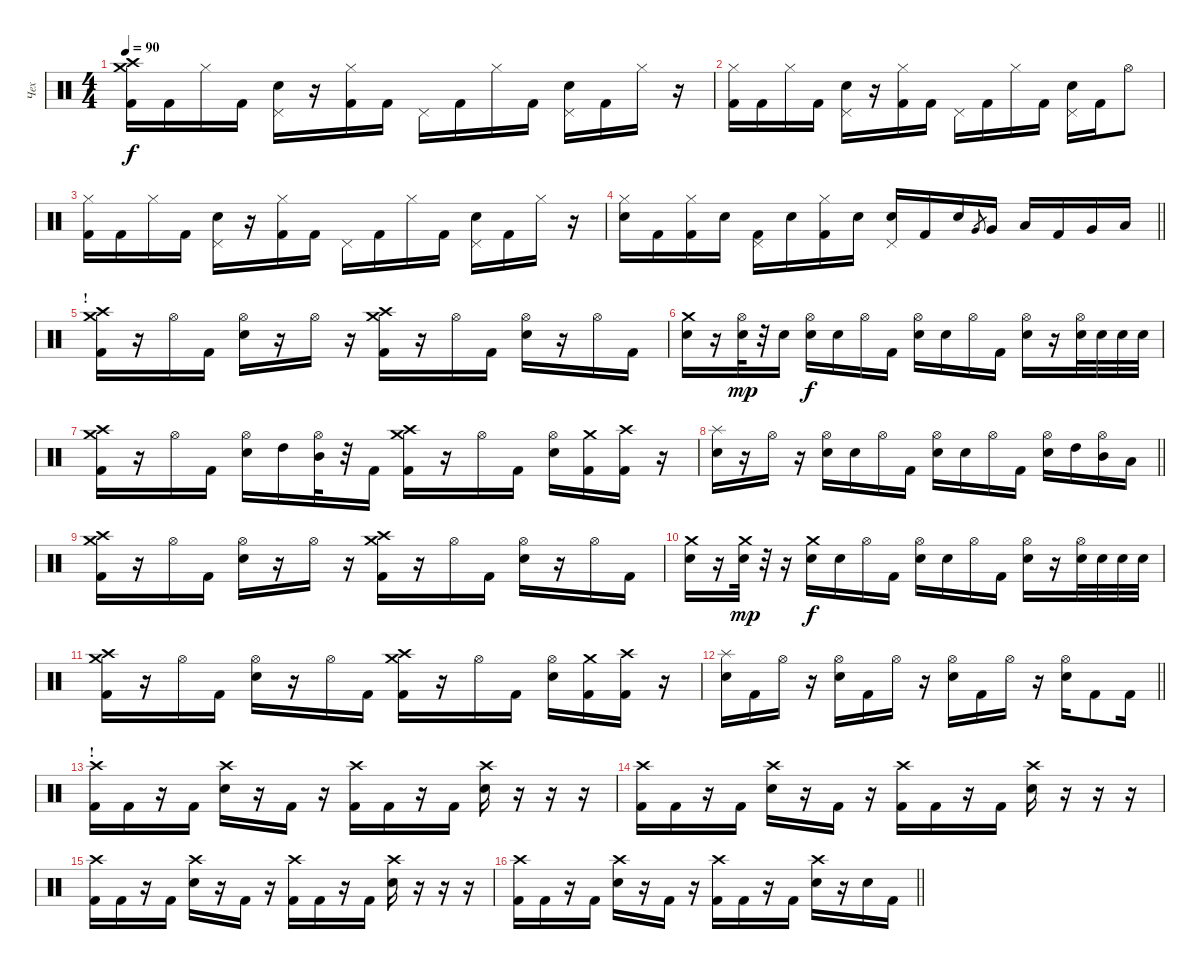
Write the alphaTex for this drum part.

\track ("Чех" "Чех") {instrument percussion}
\staff {score}
\articulation defaults
\ts (4 4)
\tempo 90
\clef neutral
\ks c
("Crash medium (hit)" "Crash high (hit)" "Kick (hit) 2").16{dy f} "Kick (hit) 2".16 "Hi-Hat (closed)".16 "Kick (hit) 2".16 ("Pedal Hi-Hat (hit)" "Snare (hit) 2").16 r.16 ("Hi-Hat (closed)" "Kick (hit) 2").16 "Kick (hit) 2".16 "Pedal Hi-Hat (hit)".16 "Kick (hit) 2".16 "Hi-Hat (closed)".16 "Kick (hit) 2".16 ("Pedal Hi-Hat (hit)" "Snare (hit) 2").16 "Kick (hit) 2".16 "Hi-Hat (closed)".16 r.16 |
("Hi-Hat (closed)" "Kick (hit) 2").16 "Kick (hit) 2".16 "Hi-Hat (closed)".16 "Kick (hit) 2".16 ("Pedal Hi-Hat (hit)" "Snare (hit) 2").16 r.16 ("Hi-Hat (closed)" "Kick (hit) 2").16 "Kick (hit) 2".16 "Pedal Hi-Hat (hit)".16 "Kick (hit) 2".16 "Hi-Hat (closed)".16 "Kick (hit) 2".16 ("Pedal Hi-Hat (hit)" "Snare (hit) 2").16 "Kick (hit) 2".16 "Hi-Hat (open)".8 |
("Hi-Hat (closed)" "Kick (hit) 2").16 "Kick (hit) 2".16 "Hi-Hat (closed)".16 "Kick (hit) 2".16 ("Pedal Hi-Hat (hit)" "Snare (hit) 2").16 r.16 ("Hi-Hat (closed)" "Kick (hit) 2").16 "Kick (hit) 2".16 "Pedal Hi-Hat (hit)".16 "Kick (hit) 2".16 "Hi-Hat (closed)".16 "Kick (hit) 2".16 ("Pedal Hi-Hat (hit)" "Snare (hit) 2").16 "Kick (hit) 2".16 "Hi-Hat (closed)".16 r.16 |
\barLineRight lightlight
("Hi-Hat (closed)" "Snare (hit) 2").16 "Kick (hit) 2".16 ("Hi-Hat (closed)" "Kick (hit) 2").16 "Snare (hit) 2".16 ("Pedal Hi-Hat (hit)" "Kick (hit) 2").16 "Snare (hit) 2".16 ("Hi-Hat (closed)" "Kick (hit) 2").16 "Snare (hit) 2".16 ("Pedal Hi-Hat (hit)" "Snare (hit) 2").16 "Kick (hit) 2".16 "Snare (hit) 2".16 "Very Low Tom (hit)".8{gr} "Very Low Tom (hit)".16 "Low Tom (hit)".16 "Kick (hit) 2".16 "Very Low Tom (hit)".16 "Low Tom (hit)".16 |
\section ("" "!")
("Crash medium (hit)" "Crash high (hit)" "Kick (hit) 2").16 r.16 "Hi-Hat (open)".16 "Kick (hit) 2".16 ("Hi-Hat (open)" "Snare (hit) 2").16 r.16 "Hi-Hat (open)".16 r.16 ("Crash medium (hit)" "Crash high (hit)" "Kick (hit) 2").16 r.16 "Hi-Hat (open)".16 "Kick (hit) 2".16 ("Hi-Hat (open)" "Snare (hit) 2").16 r.16 "Hi-Hat (open)".16 "Kick (hit) 2".16 |
("Crash medium (hit)" "Snare (hit) 2").16 r.16 ("Hi-Hat (open)" "Snare (hit) 2").32{dy mp} r.32 "Snare (hit) 2".16 ("Hi-Hat (open)" "Snare (hit) 2").16{dy f} "Snare (hit) 2".16 "Hi-Hat (open)".16 "Kick (hit) 2".16 ("Hi-Hat (open)" "Snare (hit) 2").16 "Snare (hit) 2".16 "Hi-Hat (open)".16 "Kick (hit) 2".16 ("Hi-Hat (open)" "Snare (hit) 2").16 r.16 ("Hi-Hat (open)" "Snare (hit) 2").32 "Snare (hit) 2".32 "Snare (hit) 2".32 "Snare (hit) 2".32 |
("Crash medium (hit)" "Crash high (hit)" "Kick (hit) 2").16 r.16 "Hi-Hat (open)".16 "Kick (hit) 2".16 ("Hi-Hat (open)" "Snare (hit) 2").16 "High Tom (hit)".16 ("Hi-Hat (open)" "Mid Tom (hit)").32 r.32 "Kick (hit) 2".16 ("Crash medium (hit)" "Crash high (hit)" "Kick (hit) 2").16 r.16 "Hi-Hat (open)".16 "Kick (hit) 2".16 ("Hi-Hat (open)" "Snare (hit) 2").16 ("Crash medium (hit)" "Kick (hit) 2").16 ("Crash high (hit)" "Kick (hit) 2").16 r.16 |
\barLineRight lightlight
("Splash (hit)" "Snare (hit) 2").16 r.16 "Hi-Hat (open)".16 r.16 ("Hi-Hat (open)" "Snare (hit) 2").16 "Snare (hit) 2".16 "Hi-Hat (open)".16 "Kick (hit) 2".16 ("Hi-Hat (open)" "Snare (hit) 2").16 "Snare (hit) 2".16 "Hi-Hat (open)".16 "Kick (hit) 2".16 ("Hi-Hat (open)" "Snare (hit) 2").16 "High Tom (hit)".16 ("Hi-Hat (open)" "Mid Tom (hit)").16 "Low Tom (hit)".16 |
("Crash medium (hit)" "Crash high (hit)" "Kick (hit) 2").16 r.16 "Hi-Hat (open)".16 "Kick (hit) 2".16 ("Hi-Hat (open)" "Snare (hit) 2").16 r.16 "Hi-Hat (open)".16 r.16 ("Crash medium (hit)" "Crash high (hit)" "Kick (hit) 2").16 r.16 "Hi-Hat (open)".16 "Kick (hit) 2".16 ("Hi-Hat (open)" "Snare (hit) 2").16 r.16 "Hi-Hat (open)".16 "Kick (hit) 2".16 |
("Crash medium (hit)" "Snare (hit) 2").16 r.16 ("Crash medium (hit)" "Snare (hit) 2").32{dy mp} r.32 r.16 ("Crash medium (hit)" "Snare (hit) 2").16{dy f} "Snare (hit) 2".16 "Hi-Hat (open)".16 "Kick (hit) 2".16 ("Hi-Hat (open)" "Snare (hit) 2").16 "Snare (hit) 2".16 "Hi-Hat (open)".16 "Kick (hit) 2".16 ("Hi-Hat (open)" "Snare (hit) 2").16 r.16 ("Hi-Hat (open)" "Snare (hit) 2").32 "Snare (hit) 2".32 "Snare (hit) 2".32 "Snare (hit) 2".32 |
("Crash medium (hit)" "Crash high (hit)" "Kick (hit) 2").16 r.16 "Hi-Hat (open)".16 "Kick (hit) 2".16 ("Hi-Hat (open)" "Snare (hit) 2").16 r.16 "Hi-Hat (open)".16 "Kick (hit) 2".16 ("Crash medium (hit)" "Crash high (hit)" "Kick (hit) 2").16 r.16 "Hi-Hat (open)".16 "Kick (hit) 2".16 ("Hi-Hat (open)" "Snare (hit) 2").16 ("Crash medium (hit)" "Kick (hit) 2").16 ("Crash high (hit)" "Kick (hit) 2").16 r.16 |
\barLineRight lightlight
("Splash (hit)" "Snare (hit) 2").16 "Kick (hit) 2".16 "Hi-Hat (open)".16 r.16 ("Hi-Hat (open)" "Snare (hit) 2").16 "Kick (hit) 2".16 "Hi-Hat (open)".16 r.16 ("Hi-Hat (open)" "Snare (hit) 2").16 "Kick (hit) 2".16 "Hi-Hat (open)".16 r.16 ("Hi-Hat (open)" "Snare (hit) 2").16 "Kick (hit) 2".8 "Kick (hit) 2".16 |
\section ("" "!")
("Crash high (hit)" "Kick (hit) 2").16 "Kick (hit) 2".16 r.16 "Kick (hit) 2".16 ("Crash high (hit)" "Snare (hit) 2").16 r.16 "Kick (hit) 2".16 r.16 ("Crash high (hit)" "Kick (hit) 2").16 "Kick (hit) 2".16 r.16 "Kick (hit) 2".16 ("Crash high (hit)" "Snare (hit) 2").16 r.16 r.16 r.16 |
("Crash high (hit)" "Kick (hit) 2").16 "Kick (hit) 2".16 r.16 "Kick (hit) 2".16 ("Crash high (hit)" "Snare (hit) 2").16 r.16 "Kick (hit) 2".16 r.16 ("Crash high (hit)" "Kick (hit) 2").16 "Kick (hit) 2".16 r.16 "Kick (hit) 2".16 ("Crash high (hit)" "Snare (hit) 2").16 r.16 r.16 r.16 |
("Crash high (hit)" "Kick (hit) 2").16 "Kick (hit) 2".16 r.16 "Kick (hit) 2".16 ("Crash high (hit)" "Snare (hit) 2").16 r.16 "Kick (hit) 2".16 r.16 ("Crash high (hit)" "Kick (hit) 2").16 "Kick (hit) 2".16 r.16 "Kick (hit) 2".16 ("Crash high (hit)" "Snare (hit) 2").16 r.16 r.16 r.16 |
\barLineRight lightlight
("Crash high (hit)" "Kick (hit) 2").16 "Kick (hit) 2".16 r.16 "Kick (hit) 2".16 ("Crash high (hit)" "Snare (hit) 2").16 r.16 "Kick (hit) 2".16 r.16 ("Crash high (hit)" "Kick (hit) 2").16 "Kick (hit) 2".16 r.16 "Kick (hit) 2".16 ("Crash high (hit)" "Snare (hit) 2").16 r.16 "Snare (hit) 2".16 "Kick (hit) 2".16
